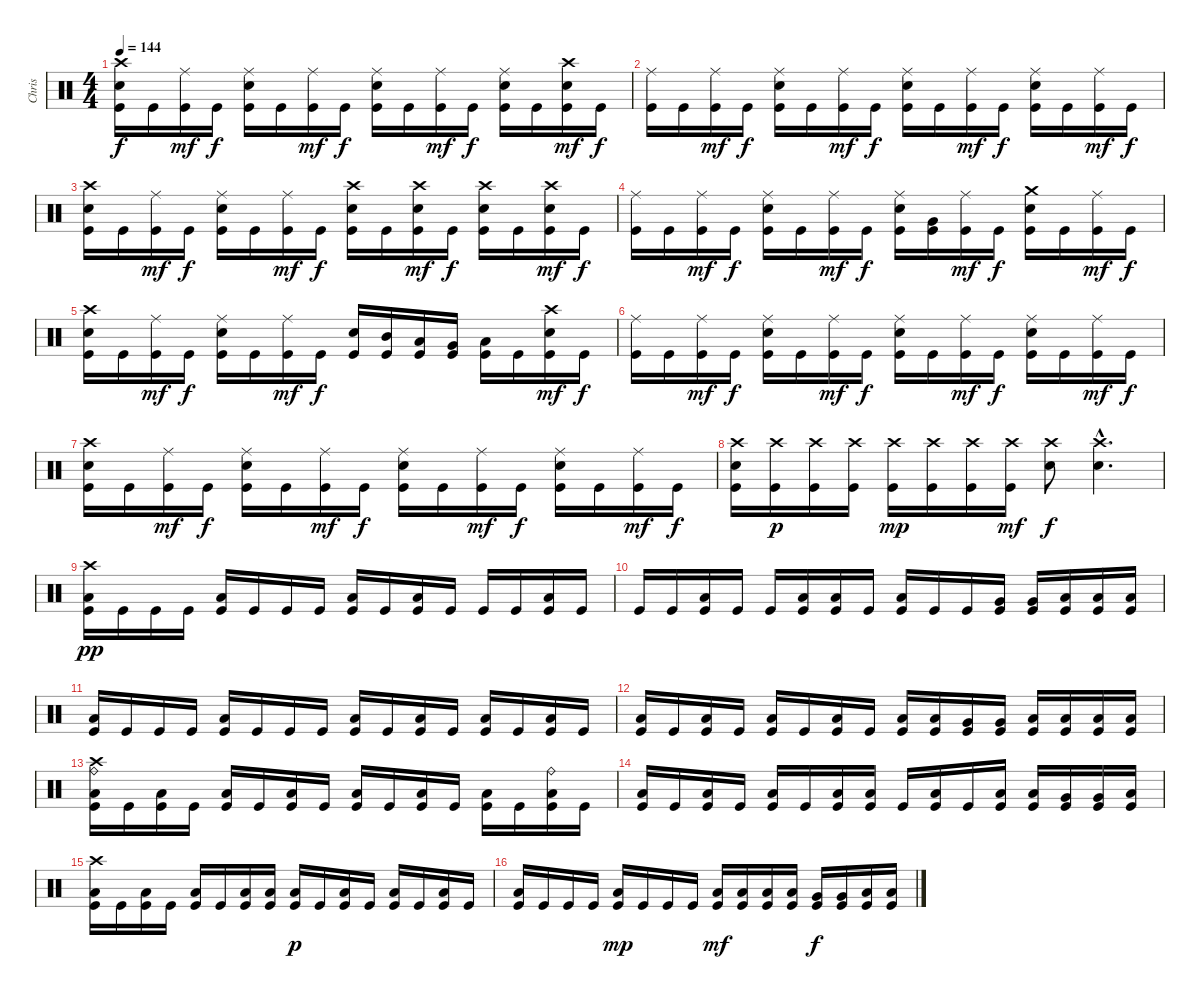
\track ("Chris" "Chris") {instrument percussion}
\staff {score}
\articulation defaults
\ts (4 4)
\tempo 144
\clef neutral
\ks c
("Crash high (hit)" "Electric Snare (hit)" "Kick (hit)").16{dy f} "Kick (hit)".16 ("Ride (middle)" "Kick (hit)").16{dy mf} "Kick (hit)".16{dy f} ("Ride (middle)" "Electric Snare (hit)" "Kick (hit)").16 "Kick (hit)".16 ("Ride (middle)" "Kick (hit)").16{dy mf} "Kick (hit)".16{dy f} ("Ride (middle)" "Electric Snare (hit)" "Kick (hit)").16 "Kick (hit)".16 ("Ride (middle)" "Kick (hit)").16{dy mf} "Kick (hit)".16{dy f} ("Ride (middle)" "Electric Snare (hit)" "Kick (hit)").16 "Kick (hit)".16 ("Crash high (hit)" "Electric Snare (hit)" "Kick (hit)").16{dy mf} "Kick (hit)".16{dy f} |
("Ride (middle)" "Kick (hit)").16 "Kick (hit)".16 ("Ride (middle)" "Kick (hit)").16{dy mf} "Kick (hit)".16{dy f} ("Ride (middle)" "Electric Snare (hit)" "Kick (hit)").16 "Kick (hit)".16 ("Ride (middle)" "Kick (hit)").16{dy mf} "Kick (hit)".16{dy f} ("Ride (middle)" "Electric Snare (hit)" "Kick (hit)").16 "Kick (hit)".16 ("Ride (middle)" "Kick (hit)").16{dy mf} "Kick (hit)".16{dy f} ("Ride (middle)" "Electric Snare (hit)" "Kick (hit)").16 "Kick (hit)".16 ("Ride (middle)" "Kick (hit)").16{dy mf} "Kick (hit)".16{dy f} |
("Crash high (hit)" "Electric Snare (hit)" "Kick (hit)").16 "Kick (hit)".16 ("Ride (middle)" "Kick (hit)").16{dy mf} "Kick (hit)".16{dy f} ("Ride (middle)" "Electric Snare (hit)" "Kick (hit)").16 "Kick (hit)".16 ("Ride (middle)" "Kick (hit)").16{dy mf} "Kick (hit)".16{dy f} ("Crash high (hit)" "Electric Snare (hit)" "Kick (hit)").16 "Kick (hit)".16 ("Crash high (hit)" "Electric Snare (hit)" "Kick (hit)").16{dy mf} "Kick (hit)".16{dy f} ("Crash high (hit)" "Electric Snare (hit)" "Kick (hit)").16 "Kick (hit)".16 ("Crash high (hit)" "Electric Snare (hit)" "Kick (hit)").16{dy mf} "Kick (hit)".16{dy f} |
("Ride (middle)" "Kick (hit)").16 "Kick (hit)".16 ("Ride (middle)" "Kick (hit)").16{dy mf} "Kick (hit)".16{dy f} ("Ride (middle)" "Electric Snare (hit)" "Kick (hit)").16 "Kick (hit)".16 ("Ride (middle)" "Kick (hit)").16{dy mf} "Kick (hit)".16{dy f} ("Ride (middle)" "Electric Snare (hit)" "Kick (hit)").16 ("Very Low Tom (hit)" "Kick (hit)").16 ("Ride (middle)" "Kick (hit)").16{dy mf} "Kick (hit)".16{dy f} ("Crash medium (hit)" "Electric Snare (hit)" "Kick (hit)").16 "Kick (hit)".16 ("Ride (middle)" "Kick (hit)").16{dy mf} "Kick (hit)".16{dy f} |
("Crash high (hit)" "Electric Snare (hit)" "Kick (hit)").16 "Kick (hit)".16 ("Ride (middle)" "Kick (hit)").16{dy mf} "Kick (hit)".16{dy f} ("Ride (middle)" "Electric Snare (hit)" "Kick (hit)").16 "Kick (hit)".16 ("Ride (middle)" "Kick (hit)").16{dy mf} "Kick (hit)".16{dy f} ("Electric Snare (hit)" "Kick (hit)").16 ("Mid Tom (hit)" "Kick (hit)").16 ("Low Tom (hit)" "Kick (hit)").16 ("Very Low Tom (hit)" "Kick (hit)").16 ("Low Floor Tom (hit)" "Kick (hit)").16 "Kick (hit)".16 ("Crash high (hit)" "Electric Snare (hit)" "Kick (hit)").16{dy mf} "Kick (hit)".16{dy f} |
("Ride (middle)" "Kick (hit)").16 "Kick (hit)".16 ("Ride (middle)" "Kick (hit)").16{dy mf} "Kick (hit)".16{dy f} ("Ride (middle)" "Electric Snare (hit)" "Kick (hit)").16 "Kick (hit)".16 ("Ride (middle)" "Kick (hit)").16{dy mf} "Kick (hit)".16{dy f} ("Ride (middle)" "Electric Snare (hit)" "Kick (hit)").16 "Kick (hit)".16 ("Ride (middle)" "Kick (hit)").16{dy mf} "Kick (hit)".16{dy f} ("Ride (middle)" "Electric Snare (hit)" "Kick (hit)").16 "Kick (hit)".16 ("Ride (middle)" "Kick (hit)").16{dy mf} "Kick (hit)".16{dy f} |
("Crash high (hit)" "Electric Snare (hit)" "Kick (hit)").16 "Kick (hit)".16 ("Ride (middle)" "Kick (hit)").16{dy mf} "Kick (hit)".16{dy f} ("Ride (middle)" "Electric Snare (hit)" "Kick (hit)").16 "Kick (hit)".16 ("Ride (middle)" "Kick (hit)").16{dy mf} "Kick (hit)".16{dy f} ("Ride (middle)" "Electric Snare (hit)" "Kick (hit)").16 "Kick (hit)".16 ("Ride (middle)" "Kick (hit)").16{dy mf} "Kick (hit)".16{dy f} ("Ride (middle)" "Electric Snare (hit)" "Kick (hit)").16 "Kick (hit)".16 ("Ride (middle)" "Kick (hit)").16{dy mf} "Kick (hit)".16{dy f} |
("Crash high (hit)" "Electric Snare (hit)" "Kick (hit)").16 ("Crash high (hit)" "Kick (hit)").16{dy p} ("Crash high (hit)" "Kick (hit)").16 ("Crash high (hit)" "Kick (hit)").16 ("Crash high (hit)" "Kick (hit)").16{dy mp} ("Crash high (hit)" "Kick (hit)").16 ("Crash high (hit)" "Kick (hit)").16 ("Crash high (hit)" "Kick (hit)").16{dy mf} ("Crash high (hit)" "Electric Snare (hit)").8{dy f} ("Crash high (hit)"{hac} "Electric Snare (hit)"{hac}).4{d} |
("Crash high (hit)" "Low Floor Tom (hit)" "Kick (hit)").16{dy pp} "Kick (hit)".16 "Kick (hit)".16 "Kick (hit)".16 ("Low Floor Tom (hit)" "Kick (hit)").16 "Kick (hit)".16 "Kick (hit)".16 "Kick (hit)".16 ("Low Floor Tom (hit)" "Kick (hit)").16 "Kick (hit)".16 ("Low Floor Tom (hit)" "Kick (hit)").16 "Kick (hit)".16 "Kick (hit)".16 "Kick (hit)".16 ("Low Floor Tom (hit)" "Kick (hit)").16 "Kick (hit)".16 |
"Kick (hit)".16 "Kick (hit)".16 ("Low Floor Tom (hit)" "Kick (hit)").16 "Kick (hit)".16 "Kick (hit)".16 ("Low Floor Tom (hit)" "Kick (hit)").16 ("Low Floor Tom (hit)" "Kick (hit)").16 "Kick (hit)".16 ("Low Floor Tom (hit)" "Kick (hit)").16 "Kick (hit)".16 "Kick (hit)".16 ("Very Low Tom (hit)" "Kick (hit)").16 ("Very Low Tom (hit)" "Kick (hit)").16 ("Low Floor Tom (hit)" "Kick (hit)").16 ("Low Floor Tom (hit)" "Kick (hit)").16 ("Low Floor Tom (hit)" "Kick (hit)").16 |
("Low Floor Tom (hit)" "Kick (hit)").16 "Kick (hit)".16 "Kick (hit)".16 "Kick (hit)".16 ("Low Floor Tom (hit)" "Kick (hit)").16 "Kick (hit)".16 "Kick (hit)".16 "Kick (hit)".16 ("Low Floor Tom (hit)" "Kick (hit)").16 "Kick (hit)".16 ("Low Floor Tom (hit)" "Kick (hit)").16 "Kick (hit)".16 ("Low Floor Tom (hit)" "Kick (hit)").16 "Kick (hit)".16 ("Low Floor Tom (hit)" "Kick (hit)").16 "Kick (hit)".16 |
("Low Floor Tom (hit)" "Kick (hit)").16 "Kick (hit)".16 ("Low Floor Tom (hit)" "Kick (hit)").16 "Kick (hit)".16 ("Low Floor Tom (hit)" "Kick (hit)").16 "Kick (hit)".16 ("Low Floor Tom (hit)" "Kick (hit)").16 "Kick (hit)".16 ("Low Tom (hit)" "Kick (hit)").16 ("Low Tom (hit)" "Kick (hit)").16 ("Very Low Tom (hit)" "Kick (hit)").16 ("Very Low Tom (hit)" "Kick (hit)").16 ("Low Floor Tom (hit)" "Kick (hit)").16 ("Low Floor Tom (hit)" "Kick (hit)").16 ("Low Floor Tom (hit)" "Kick (hit)").16 ("Low Floor Tom (hit)" "Kick (hit)").16 |
("Crash high (hit)" "Ride (bell)" "Low Floor Tom (hit)" "Kick (hit)").16 "Kick (hit)".16 ("Low Floor Tom (hit)" "Kick (hit)").16 "Kick (hit)".16 ("Low Floor Tom (hit)" "Kick (hit)").16 "Kick (hit)".16 ("Low Floor Tom (hit)" "Kick (hit)").16 "Kick (hit)".16 ("Low Floor Tom (hit)" "Kick (hit)").16 "Kick (hit)".16 ("Low Floor Tom (hit)" "Kick (hit)").16 "Kick (hit)".16 ("Low Floor Tom (hit)" "Kick (hit)").16 "Kick (hit)".16 ("Ride (bell)" "Low Floor Tom (hit)" "Kick (hit)").16 "Kick (hit)".16 |
("Low Floor Tom (hit)" "Kick (hit)").16 "Kick (hit)".16 ("Low Floor Tom (hit)" "Kick (hit)").16 "Kick (hit)".16 ("Low Floor Tom (hit)" "Kick (hit)").16 "Kick (hit)".16 ("Low Floor Tom (hit)" "Kick (hit)").16 ("Low Floor Tom (hit)" "Kick (hit)").16 "Kick (hit)".16 ("Low Floor Tom (hit)" "Kick (hit)").16 "Kick (hit)".16 ("Low Tom (hit)" "Kick (hit)").16 ("Low Tom (hit)" "Kick (hit)").16 ("Very Low Tom (hit)" "Kick (hit)").16 ("Very Low Tom (hit)" "Kick (hit)").16 ("Low Floor Tom (hit)" "Kick (hit)").16 |
("Crash high (hit)" "Low Floor Tom (hit)" "Kick (hit)").16 "Kick (hit)".16 ("Low Floor Tom (hit)" "Kick (hit)").16 "Kick (hit)".16 ("Low Floor Tom (hit)" "Kick (hit)").16 "Kick (hit)".16 ("Low Floor Tom (hit)" "Kick (hit)").16 ("Low Floor Tom (hit)" "Kick (hit)").16 ("Low Floor Tom (hit)" "Kick (hit)").16{dy p} "Kick (hit)".16 ("Low Floor Tom (hit)" "Kick (hit)").16 "Kick (hit)".16 ("Low Floor Tom (hit)" "Kick (hit)").16 "Kick (hit)".16 ("Low Floor Tom (hit)" "Kick (hit)").16 "Kick (hit)".16 |
("Low Floor Tom (hit)" "Kick (hit)").16 "Kick (hit)".16 "Kick (hit)".16 "Kick (hit)".16 ("Low Floor Tom (hit)" "Kick (hit)").16{dy mp} "Kick (hit)".16 "Kick (hit)".16 "Kick (hit)".16 ("Low Tom (hit)" "Kick (hit)").16{dy mf} ("Low Tom (hit)" "Kick (hit)").16 ("Low Tom (hit)" "Kick (hit)").16 ("Low Tom (hit)" "Kick (hit)").16 ("Very Low Tom (hit)" "Kick (hit)").16{dy f} ("Very Low Tom (hit)" "Kick (hit)").16 ("Low Floor Tom (hit)" "Kick (hit)").16 ("Low Floor Tom (hit)" "Kick (hit)").16
